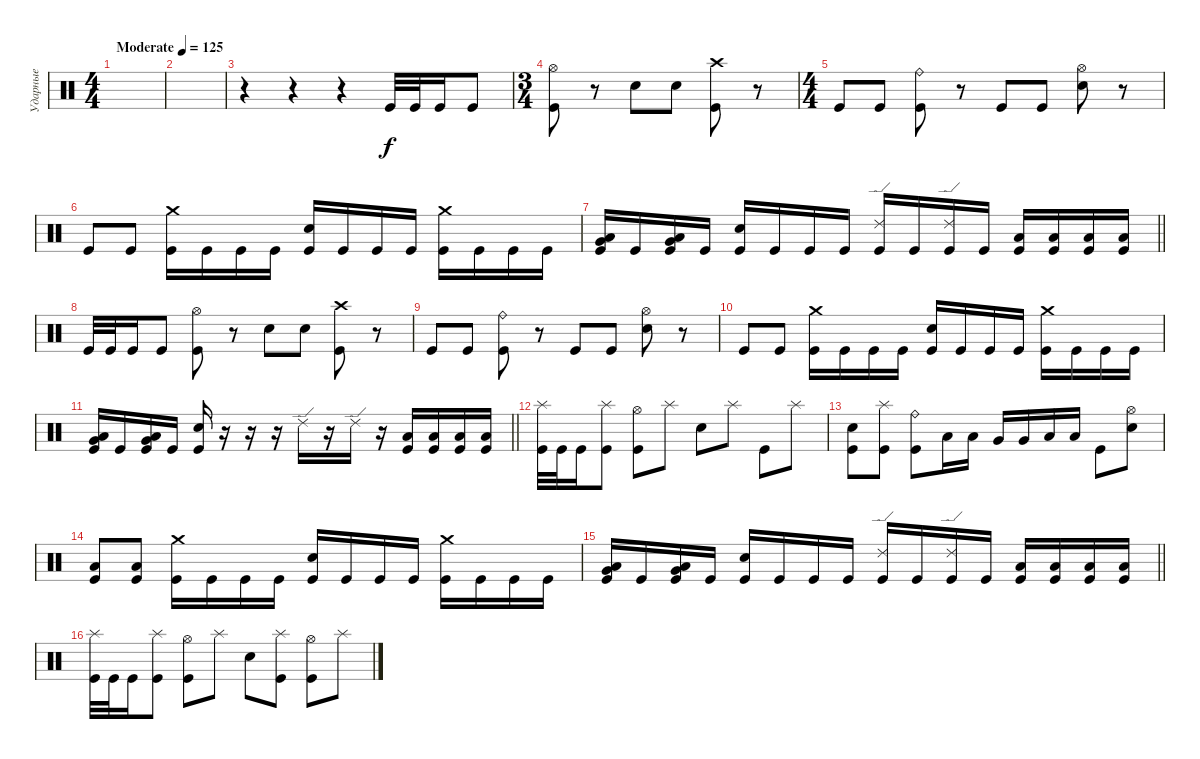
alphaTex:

\track ("Ударные" "Ударные") {instrument percussion}
\staff {score}
\articulation defaults
\ts (4 4)
\tempo (125 "Moderate")
\clef neutral
\ks c
|
|
r.4 r.4 r.4 "Kick (hit)".32 "Kick (hit)".32 "Kick (hit)".16 "Kick (hit)".8 |
\ts (3 4)
("Hi-Hat (open)" "Kick (hit)").8 r.8 "Electric Snare (hit)".8 "Electric Snare (hit)".8 ("Crash high (hit)" "Kick (hit)").8 r.8 |
\ts (4 4)
"Kick (hit)".8 "Kick (hit)".8 ("Ride (bell)" "Kick (hit)").8 r.8 "Kick (hit)".8 "Kick (hit)".8 ("Electric Snare (hit)" "Hi-Hat (open)").8 r.8 |
"Kick (hit)".8 "Kick (hit)".8 ("Crash medium (hit)" "Kick (hit)").16 "Kick (hit)".16 "Kick (hit)".16 "Kick (hit)".16 ("Electric Snare (hit)" "Kick (hit)").16 "Kick (hit)".16 "Kick (hit)".16 "Kick (hit)".16 ("Crash medium (hit)" "Kick (hit)").16 "Kick (hit)".16 "Kick (hit)".16 "Kick (hit)".16 |
\barLineRight lightlight
("Low Floor Tom (hit)" "Very Low Tom (hit)" "Kick (hit)").16 "Kick (hit)".16 ("Low Floor Tom (hit)" "Very Low Tom (hit)" "Kick (hit)").16 "Kick (hit)".16 ("Electric Snare (hit)" "Kick (hit)").16 "Kick (hit)".16 "Kick (hit)".16 "Kick (hit)".16 ("Ride (edge) 2" "Kick (hit)").16 "Kick (hit)".16 ("Ride (edge) 2" "Kick (hit)").16 "Kick (hit)".16 ("Low Floor Tom (hit)" "Kick (hit)").16 ("Low Floor Tom (hit)" "Kick (hit)").16 ("Low Tom (hit)" "Kick (hit)").16 ("Low Tom (hit)" "Kick (hit)").16 |
"Kick (hit)".32 "Kick (hit)".32 "Kick (hit)".16 "Kick (hit)".8 ("Hi-Hat (open)" "Kick (hit)").8 r.8 "Electric Snare (hit)".8 "Electric Snare (hit)".8 ("Crash high (hit)" "Kick (hit)").8 r.8 |
"Kick (hit)".8 "Kick (hit)".8 ("Ride (bell)" "Kick (hit)").8 r.8 "Kick (hit)".8 "Kick (hit)".8 ("Electric Snare (hit)" "Hi-Hat (open)").8 r.8 |
"Kick (hit)".8 "Kick (hit)".8 ("Crash medium (hit)" "Kick (hit)").16 "Kick (hit)".16 "Kick (hit)".16 "Kick (hit)".16 ("Electric Snare (hit)" "Kick (hit)").16 "Kick (hit)".16 "Kick (hit)".16 "Kick (hit)".16 ("Crash medium (hit)" "Kick (hit)").16 "Kick (hit)".16 "Kick (hit)".16 "Kick (hit)".16 |
\barLineRight lightlight
("Low Floor Tom (hit)" "Very Low Tom (hit)" "Kick (hit)").16 "Kick (hit)".16 ("Low Floor Tom (hit)" "Very Low Tom (hit)" "Kick (hit)").16 "Kick (hit)".16 ("Electric Snare (hit)" "Kick (hit)").16 r.16 r.16 r.16 "Ride (edge) 2".16 r.16 "Ride (edge) 2".16 r.16 ("Low Floor Tom (hit)" "Kick (hit)").16 ("Low Floor Tom (hit)" "Kick (hit)").16 ("Low Tom (hit)" "Kick (hit)").16 ("Low Tom (hit)" "Kick (hit)").16 |
("Splash (hit)" "Kick (hit)").32 "Kick (hit)".32 "Kick (hit)".16 ("Splash (hit)" "Kick (hit)").8 ("Hi-Hat (open)" "Kick (hit)").8 "Splash (hit)".8 "Electric Snare (hit)".8 "Splash (hit)".8 "Kick (hit)".8 "Splash (hit)".8 |
("Electric Snare (hit)" "Kick (hit)").8 ("Splash (hit)" "Kick (hit)").8 ("Ride (bell)" "Kick (hit)").8 "Low Tom (hit)".16 "Low Tom (hit)".16 "Very Low Tom (hit)".16 "Very Low Tom (hit)".16 "Low Floor Tom (hit)".16 "Low Floor Tom (hit)".16 "Kick (hit)".8 ("Electric Snare (hit)" "Hi-Hat (open)").8 |
("Kick (hit)" "Low Floor Tom (hit)").8 ("Kick (hit)" "Low Floor Tom (hit)").8 ("Crash medium (hit)" "Kick (hit)").16 "Kick (hit)".16 "Kick (hit)".16 "Kick (hit)".16 ("Electric Snare (hit)" "Kick (hit)").16 "Kick (hit)".16 "Kick (hit)".16 "Kick (hit)".16 ("Crash medium (hit)" "Kick (hit)").16 "Kick (hit)".16 "Kick (hit)".16 "Kick (hit)".16 |
\barLineRight lightlight
("Low Floor Tom (hit)" "Very Low Tom (hit)" "Kick (hit)").16 "Kick (hit)".16 ("Low Floor Tom (hit)" "Very Low Tom (hit)" "Kick (hit)").16 "Kick (hit)".16 ("Electric Snare (hit)" "Kick (hit)").16 "Kick (hit)".16 "Kick (hit)".16 "Kick (hit)".16 ("Ride (edge) 2" "Kick (hit)").16 "Kick (hit)".16 ("Ride (edge) 2" "Kick (hit)").16 "Kick (hit)".16 ("Low Floor Tom (hit)" "Kick (hit)").16 ("Low Floor Tom (hit)" "Kick (hit)").16 ("Low Tom (hit)" "Kick (hit)").16 ("Low Tom (hit)" "Kick (hit)").16 |
("Splash (hit)" "Kick (hit)").32 "Kick (hit)".32 "Kick (hit)".16 ("Splash (hit)" "Kick (hit)").8 ("Hi-Hat (open)" "Kick (hit)").8 "Splash (hit)".8 "Electric Snare (hit)".8 ("Splash (hit)" "Kick (hit)").8 ("Hi-Hat (open)" "Kick (hit)").8 "Splash (hit)".8
